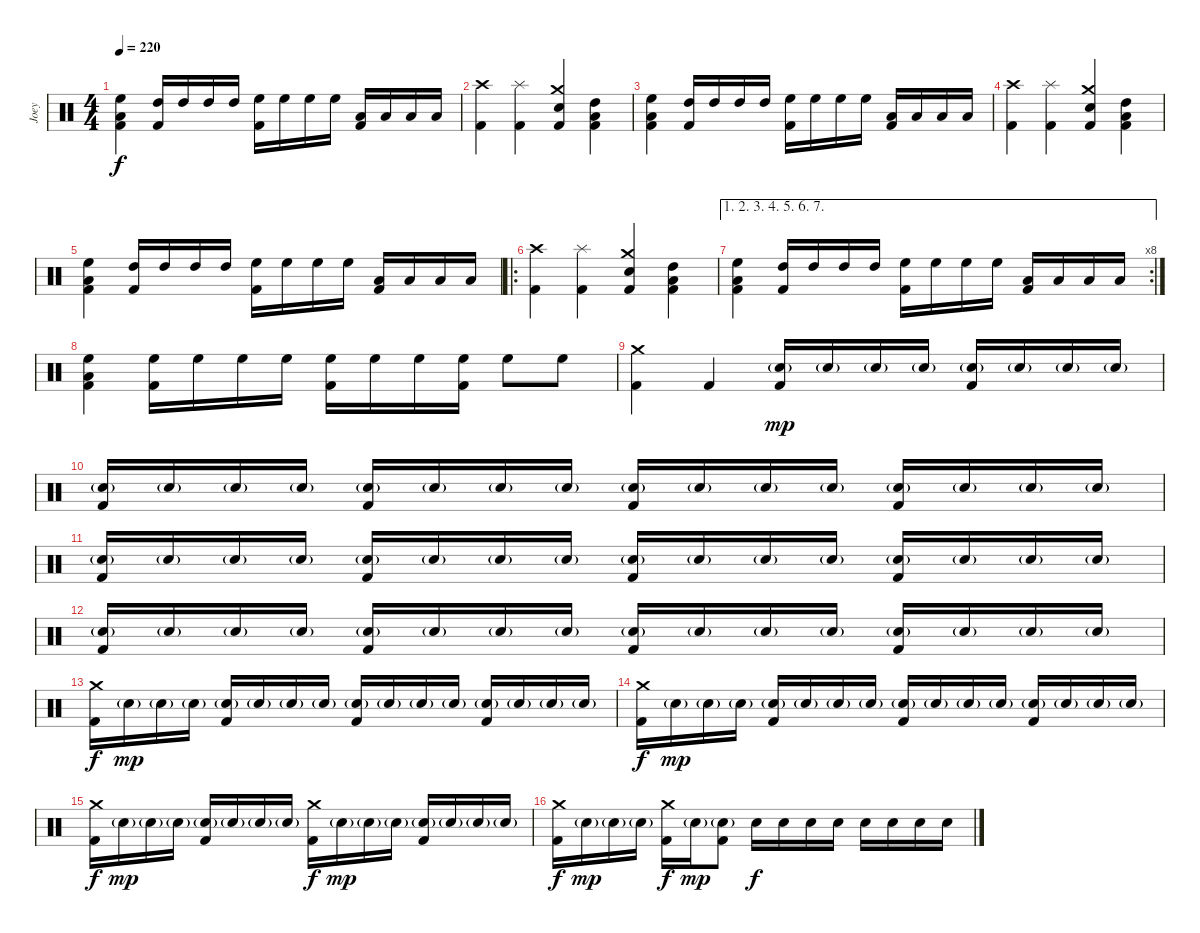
\track ("Joey" "Joey") {instrument percussion}
\staff {score}
\articulation defaults
\ts (4 4)
\tempo 220
\clef neutral
\ks c
("High Floor Tom (hit)" "Low Floor Tom (hit)" "Kick (hit) 2").4{dy f} ("High Tom (hit)" "Kick (hit) 2").16 "High Tom (hit)".16 "High Tom (hit)".16 "High Tom (hit)".16 ("High Floor Tom (hit)" "Kick (hit) 2").16 "High Floor Tom (hit)".16 "High Floor Tom (hit)".16 "High Floor Tom (hit)".16 ("Low Floor Tom (hit)" "Kick (hit) 2").16 "Low Floor Tom (hit)".16 "Low Floor Tom (hit)".16 "Low Floor Tom (hit)".16 |
("Crash high (hit)" "Kick (hit) 2").4 ("Splash (hit)" "Kick (hit) 2").4 ("Crash medium (hit)" "Electric Snare (hit)" "Kick (hit) 2").4 ("High Tom (hit)" "Low Floor Tom (hit)" "Kick (hit) 2").4 |
("High Floor Tom (hit)" "Low Floor Tom (hit)" "Kick (hit) 2").4 ("High Tom (hit)" "Kick (hit) 2").16 "High Tom (hit)".16 "High Tom (hit)".16 "High Tom (hit)".16 ("High Floor Tom (hit)" "Kick (hit) 2").16 "High Floor Tom (hit)".16 "High Floor Tom (hit)".16 "High Floor Tom (hit)".16 ("Low Floor Tom (hit)" "Kick (hit) 2").16 "Low Floor Tom (hit)".16 "Low Floor Tom (hit)".16 "Low Floor Tom (hit)".16 |
("Crash high (hit)" "Kick (hit) 2").4 ("Splash (hit)" "Kick (hit) 2").4 ("Crash medium (hit)" "Electric Snare (hit)" "Kick (hit) 2").4 ("High Tom (hit)" "Low Floor Tom (hit)" "Kick (hit) 2").4 |
("High Floor Tom (hit)" "Low Floor Tom (hit)" "Kick (hit) 2").4 ("High Tom (hit)" "Kick (hit) 2").16 "High Tom (hit)".16 "High Tom (hit)".16 "High Tom (hit)".16 ("High Floor Tom (hit)" "Kick (hit) 2").16 "High Floor Tom (hit)".16 "High Floor Tom (hit)".16 "High Floor Tom (hit)".16 ("Low Floor Tom (hit)" "Kick (hit) 2").16 "Low Floor Tom (hit)".16 "Low Floor Tom (hit)".16 "Low Floor Tom (hit)".16 |
\ro
("Crash high (hit)" "Kick (hit) 2").4 ("Splash (hit)" "Kick (hit) 2").4 ("Crash medium (hit)" "Electric Snare (hit)" "Kick (hit) 2").4 ("High Tom (hit)" "Low Floor Tom (hit)" "Kick (hit) 2").4 |
\ae (1 2 3 4 5 6 7)
\rc 8
("High Floor Tom (hit)" "Low Floor Tom (hit)" "Kick (hit) 2").4 ("High Tom (hit)" "Kick (hit) 2").16 "High Tom (hit)".16 "High Tom (hit)".16 "High Tom (hit)".16 ("High Floor Tom (hit)" "Kick (hit) 2").16 "High Floor Tom (hit)".16 "High Floor Tom (hit)".16 "High Floor Tom (hit)".16 ("Low Floor Tom (hit)" "Kick (hit) 2").16 "Low Floor Tom (hit)".16 "Low Floor Tom (hit)".16 "Low Floor Tom (hit)".16 |
("High Floor Tom (hit)" "Low Floor Tom (hit)" "Kick (hit) 2").4 ("High Floor Tom (hit)" "Kick (hit) 2").16 "High Floor Tom (hit)".16 "High Floor Tom (hit)".16 "High Floor Tom (hit)".16 ("High Floor Tom (hit)" "Kick (hit) 2").16 "High Floor Tom (hit)".16 "High Floor Tom (hit)".16 ("High Floor Tom (hit)" "Kick (hit) 2").16 "High Floor Tom (hit)".8 "High Floor Tom (hit)".8 |
("Crash medium (hit)" "Kick (hit) 2").4 "Kick (hit) 2".4 ("Electric Snare (hit)"{g} "Kick (hit) 2").16{dy mp} "Electric Snare (hit)"{g}.16 "Electric Snare (hit)"{g}.16 "Electric Snare (hit)"{g}.16 ("Electric Snare (hit)"{g} "Kick (hit) 2").16 "Electric Snare (hit)"{g}.16 "Electric Snare (hit)"{g}.16 "Electric Snare (hit)"{g}.16 |
("Electric Snare (hit)"{g} "Kick (hit) 2").16 "Electric Snare (hit)"{g}.16 "Electric Snare (hit)"{g}.16 "Electric Snare (hit)"{g}.16 ("Electric Snare (hit)"{g} "Kick (hit) 2").16 "Electric Snare (hit)"{g}.16 "Electric Snare (hit)"{g}.16 "Electric Snare (hit)"{g}.16 ("Electric Snare (hit)"{g} "Kick (hit) 2").16 "Electric Snare (hit)"{g}.16 "Electric Snare (hit)"{g}.16 "Electric Snare (hit)"{g}.16 ("Electric Snare (hit)"{g} "Kick (hit) 2").16 "Electric Snare (hit)"{g}.16 "Electric Snare (hit)"{g}.16 "Electric Snare (hit)"{g}.16 |
("Electric Snare (hit)"{g} "Kick (hit) 2").16 "Electric Snare (hit)"{g}.16 "Electric Snare (hit)"{g}.16 "Electric Snare (hit)"{g}.16 ("Electric Snare (hit)"{g} "Kick (hit) 2").16 "Electric Snare (hit)"{g}.16 "Electric Snare (hit)"{g}.16 "Electric Snare (hit)"{g}.16 ("Electric Snare (hit)"{g} "Kick (hit) 2").16 "Electric Snare (hit)"{g}.16 "Electric Snare (hit)"{g}.16 "Electric Snare (hit)"{g}.16 ("Electric Snare (hit)"{g} "Kick (hit) 2").16 "Electric Snare (hit)"{g}.16 "Electric Snare (hit)"{g}.16 "Electric Snare (hit)"{g}.16 |
("Electric Snare (hit)"{g} "Kick (hit) 2").16 "Electric Snare (hit)"{g}.16 "Electric Snare (hit)"{g}.16 "Electric Snare (hit)"{g}.16 ("Electric Snare (hit)"{g} "Kick (hit) 2").16 "Electric Snare (hit)"{g}.16 "Electric Snare (hit)"{g}.16 "Electric Snare (hit)"{g}.16 ("Electric Snare (hit)"{g} "Kick (hit) 2").16 "Electric Snare (hit)"{g}.16 "Electric Snare (hit)"{g}.16 "Electric Snare (hit)"{g}.16 ("Electric Snare (hit)"{g} "Kick (hit) 2").16 "Electric Snare (hit)"{g}.16 "Electric Snare (hit)"{g}.16 "Electric Snare (hit)"{g}.16 |
("Crash medium (hit)" "Kick (hit) 2").16{dy f} "Electric Snare (hit)"{g}.16{dy mp} "Electric Snare (hit)"{g}.16 "Electric Snare (hit)"{g}.16 ("Electric Snare (hit)"{g} "Kick (hit) 2").16 "Electric Snare (hit)"{g}.16 "Electric Snare (hit)"{g}.16 "Electric Snare (hit)"{g}.16 ("Electric Snare (hit)"{g} "Kick (hit) 2").16 "Electric Snare (hit)"{g}.16 "Electric Snare (hit)"{g}.16 "Electric Snare (hit)"{g}.16 ("Electric Snare (hit)"{g} "Kick (hit) 2").16 "Electric Snare (hit)"{g}.16 "Electric Snare (hit)"{g}.16 "Electric Snare (hit)"{g}.16 |
("Crash medium (hit)" "Kick (hit) 2").16{dy f} "Electric Snare (hit)"{g}.16{dy mp} "Electric Snare (hit)"{g}.16 "Electric Snare (hit)"{g}.16 ("Electric Snare (hit)"{g} "Kick (hit) 2").16 "Electric Snare (hit)"{g}.16 "Electric Snare (hit)"{g}.16 "Electric Snare (hit)"{g}.16 ("Electric Snare (hit)"{g} "Kick (hit) 2").16 "Electric Snare (hit)"{g}.16 "Electric Snare (hit)"{g}.16 "Electric Snare (hit)"{g}.16 ("Electric Snare (hit)"{g} "Kick (hit) 2").16 "Electric Snare (hit)"{g}.16 "Electric Snare (hit)"{g}.16 "Electric Snare (hit)"{g}.16 |
("Crash medium (hit)" "Kick (hit) 2").16{dy f} "Electric Snare (hit)"{g}.16{dy mp} "Electric Snare (hit)"{g}.16 "Electric Snare (hit)"{g}.16 ("Electric Snare (hit)"{g} "Kick (hit) 2").16 "Electric Snare (hit)"{g}.16 "Electric Snare (hit)"{g}.16 "Electric Snare (hit)"{g}.16 ("Crash medium (hit)" "Kick (hit) 2").16{dy f} "Electric Snare (hit)"{g}.16{dy mp} "Electric Snare (hit)"{g}.16 "Electric Snare (hit)"{g}.16 ("Electric Snare (hit)"{g} "Kick (hit) 2").16 "Electric Snare (hit)"{g}.16 "Electric Snare (hit)"{g}.16 "Electric Snare (hit)"{g}.16 |
("Crash medium (hit)" "Kick (hit) 2").16{dy f} "Electric Snare (hit)"{g}.16{dy mp} "Electric Snare (hit)"{g}.16 "Electric Snare (hit)"{g}.16 ("Crash medium (hit)" "Kick (hit) 2").16{dy f} "Electric Snare (hit)"{g}.16{dy mp} ("Electric Snare (hit)"{g} "Kick (hit) 2").8 "Electric Snare (hit)".16{dy f} "Electric Snare (hit)".16 "Electric Snare (hit)".16 "Electric Snare (hit)".16 "Electric Snare (hit)".16 "Electric Snare (hit)".16 "Electric Snare (hit)".16 "Electric Snare (hit)".16
